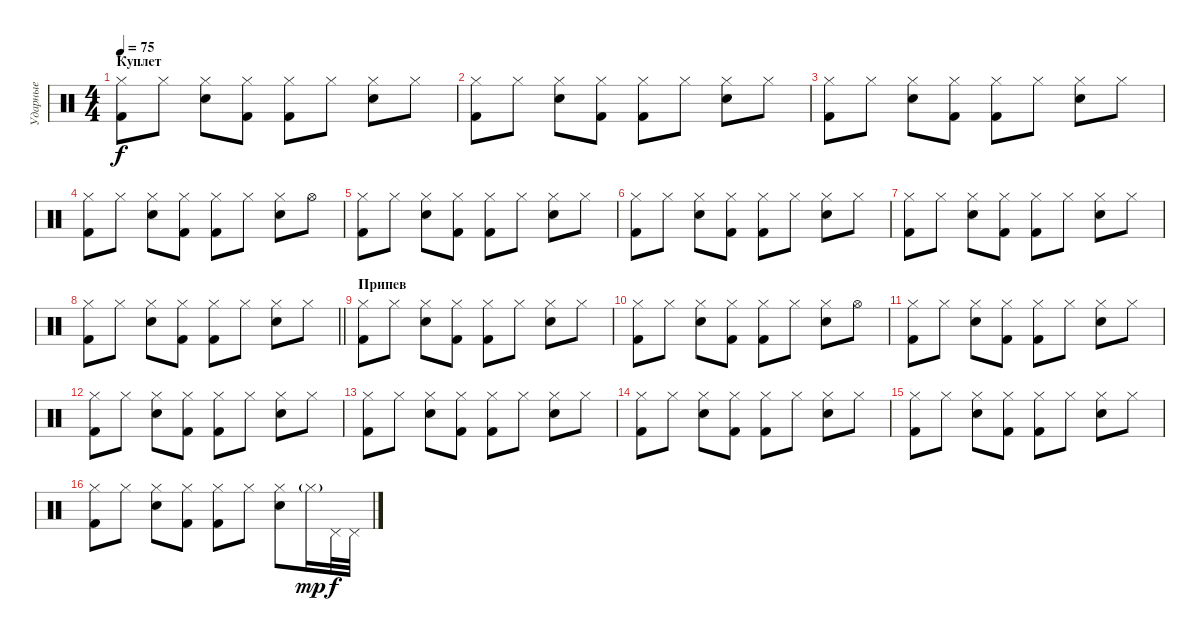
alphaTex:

\track ("Ударные" "Ударные") {instrument percussion}
\staff {score}
\articulation defaults
\ts (4 4)
\section ("" "Куплет")
\tempo 75
\clef neutral
\ks c
("Hi-Hat (closed)" "Kick (hit) 2").8{dy f} "Hi-Hat (closed)".8 ("Electric Snare (hit)" "Hi-Hat (closed)").8 ("Hi-Hat (closed)" "Kick (hit) 2").8 ("Hi-Hat (closed)" "Kick (hit) 2").8 "Hi-Hat (closed)".8 ("Electric Snare (hit)" "Hi-Hat (closed)").8 "Hi-Hat (closed)".8 |
("Hi-Hat (closed)" "Kick (hit) 2").8 "Hi-Hat (closed)".8 ("Electric Snare (hit)" "Hi-Hat (closed)").8 ("Hi-Hat (closed)" "Kick (hit) 2").8 ("Hi-Hat (closed)" "Kick (hit) 2").8 "Hi-Hat (closed)".8 ("Electric Snare (hit)" "Hi-Hat (closed)").8 "Hi-Hat (closed)".8 |
("Hi-Hat (closed)" "Kick (hit) 2").8 "Hi-Hat (closed)".8 ("Electric Snare (hit)" "Hi-Hat (closed)").8 ("Hi-Hat (closed)" "Kick (hit) 2").8 ("Hi-Hat (closed)" "Kick (hit) 2").8 "Hi-Hat (closed)".8 ("Electric Snare (hit)" "Hi-Hat (closed)").8 "Hi-Hat (closed)".8 |
("Hi-Hat (closed)" "Kick (hit) 2").8 "Hi-Hat (closed)".8 ("Electric Snare (hit)" "Hi-Hat (closed)").8 ("Hi-Hat (closed)" "Kick (hit) 2").8 ("Hi-Hat (closed)" "Kick (hit) 2").8 "Hi-Hat (closed)".8 ("Electric Snare (hit)" "Hi-Hat (closed)").8 "Hi-Hat (open)".8 |
("Hi-Hat (closed)" "Kick (hit) 2").8 "Hi-Hat (closed)".8 ("Electric Snare (hit)" "Hi-Hat (closed)").8 ("Hi-Hat (closed)" "Kick (hit) 2").8 ("Hi-Hat (closed)" "Kick (hit) 2").8 "Hi-Hat (closed)".8 ("Electric Snare (hit)" "Hi-Hat (closed)").8 "Hi-Hat (closed)".8 |
("Hi-Hat (closed)" "Kick (hit) 2").8 "Hi-Hat (closed)".8 ("Electric Snare (hit)" "Hi-Hat (closed)").8 ("Hi-Hat (closed)" "Kick (hit) 2").8 ("Hi-Hat (closed)" "Kick (hit) 2").8 "Hi-Hat (closed)".8 ("Electric Snare (hit)" "Hi-Hat (closed)").8 "Hi-Hat (closed)".8 |
("Hi-Hat (closed)" "Kick (hit) 2").8 "Hi-Hat (closed)".8 ("Electric Snare (hit)" "Hi-Hat (closed)").8 ("Hi-Hat (closed)" "Kick (hit) 2").8 ("Hi-Hat (closed)" "Kick (hit) 2").8 "Hi-Hat (closed)".8 ("Electric Snare (hit)" "Hi-Hat (closed)").8 "Hi-Hat (closed)".8 |
\barLineRight lightlight
("Hi-Hat (closed)" "Kick (hit) 2").8 "Hi-Hat (closed)".8 ("Electric Snare (hit)" "Hi-Hat (closed)").8 ("Hi-Hat (closed)" "Kick (hit) 2").8 ("Hi-Hat (closed)" "Kick (hit) 2").8 "Hi-Hat (closed)".8 ("Electric Snare (hit)" "Hi-Hat (closed)").8 "Hi-Hat (closed)".8 |
\section ("" "Припев")
("Hi-Hat (closed)" "Kick (hit) 2").8 "Hi-Hat (closed)".8 ("Electric Snare (hit)" "Hi-Hat (closed)").8 ("Hi-Hat (closed)" "Kick (hit) 2").8 ("Hi-Hat (closed)" "Kick (hit) 2").8 "Hi-Hat (closed)".8 ("Electric Snare (hit)" "Hi-Hat (closed)").8 "Hi-Hat (closed)".8 |
("Hi-Hat (closed)" "Kick (hit) 2").8 "Hi-Hat (closed)".8 ("Electric Snare (hit)" "Hi-Hat (closed)").8 ("Hi-Hat (closed)" "Kick (hit) 2").8 ("Hi-Hat (closed)" "Kick (hit) 2").8 "Hi-Hat (closed)".8 ("Electric Snare (hit)" "Hi-Hat (closed)").8 "Hi-Hat (open)".8 |
("Hi-Hat (closed)" "Kick (hit) 2").8 "Hi-Hat (closed)".8 ("Electric Snare (hit)" "Hi-Hat (closed)").8 ("Hi-Hat (closed)" "Kick (hit) 2").8 ("Hi-Hat (closed)" "Kick (hit) 2").8 "Hi-Hat (closed)".8 ("Electric Snare (hit)" "Hi-Hat (closed)").8 "Hi-Hat (closed)".8 |
("Hi-Hat (closed)" "Kick (hit) 2").8 "Hi-Hat (closed)".8 ("Electric Snare (hit)" "Hi-Hat (closed)").8 ("Hi-Hat (closed)" "Kick (hit) 2").8 ("Hi-Hat (closed)" "Kick (hit) 2").8 "Hi-Hat (closed)".8 ("Electric Snare (hit)" "Hi-Hat (closed)").8 "Hi-Hat (closed)".8 |
("Hi-Hat (closed)" "Kick (hit) 2").8 "Hi-Hat (closed)".8 ("Electric Snare (hit)" "Hi-Hat (closed)").8 ("Hi-Hat (closed)" "Kick (hit) 2").8 ("Hi-Hat (closed)" "Kick (hit) 2").8 "Hi-Hat (closed)".8 ("Electric Snare (hit)" "Hi-Hat (closed)").8 "Hi-Hat (closed)".8 |
("Hi-Hat (closed)" "Kick (hit) 2").8 "Hi-Hat (closed)".8 ("Electric Snare (hit)" "Hi-Hat (closed)").8 ("Hi-Hat (closed)" "Kick (hit) 2").8 ("Hi-Hat (closed)" "Kick (hit) 2").8 "Hi-Hat (closed)".8 ("Electric Snare (hit)" "Hi-Hat (closed)").8 "Hi-Hat (closed)".8 |
("Hi-Hat (closed)" "Kick (hit) 2").8 "Hi-Hat (closed)".8 ("Electric Snare (hit)" "Hi-Hat (closed)").8 ("Hi-Hat (closed)" "Kick (hit) 2").8 ("Hi-Hat (closed)" "Kick (hit) 2").8 "Hi-Hat (closed)".8 ("Electric Snare (hit)" "Hi-Hat (closed)").8 "Hi-Hat (closed)".8 |
("Hi-Hat (closed)" "Kick (hit) 2").8 "Hi-Hat (closed)".8 ("Electric Snare (hit)" "Hi-Hat (closed)").8 ("Hi-Hat (closed)" "Kick (hit) 2").8 ("Hi-Hat (closed)" "Kick (hit) 2").8 "Hi-Hat (closed)".8 ("Electric Snare (hit)" "Hi-Hat (closed)").8 "Hi-Hat (closed)"{g}.16{dy mp} "Pedal Hi-Hat (hit)".32{dy f} "Pedal Hi-Hat (hit)".32
